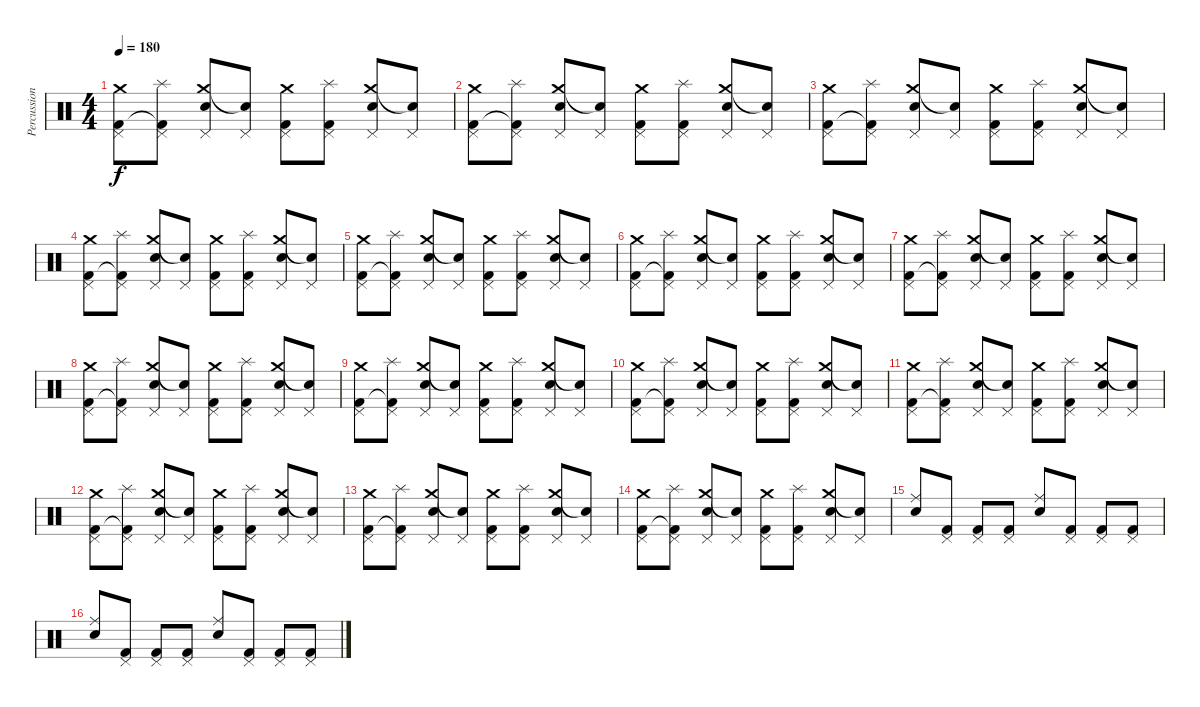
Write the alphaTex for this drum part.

\track ("Percussion" "Percussion") {instrument percussion}
\staff
\articulation defaults
\ts (4 4)
\tempo 180
\clef neutral
\ks c
("Pedal Hi-Hat (hit)" "Crash medium (hit)" "Kick (hit) 2").8{dy f} ("Pedal Hi-Hat (hit)" "Splash (hit)" "Kick (hit) 2"{t}).8 ("Pedal Hi-Hat (hit)" "Crash medium (hit)" "Snare (hit) 2").8 ("Pedal Hi-Hat (hit)" "Snare (hit) 2"{t}).8 ("Pedal Hi-Hat (hit)" "Crash medium (hit)" "Kick (hit) 2").8 ("Pedal Hi-Hat (hit)" "Splash (hit)" "Kick (hit) 2").8 ("Pedal Hi-Hat (hit)" "Crash medium (hit)" "Snare (hit) 2").8 ("Pedal Hi-Hat (hit)" "Snare (hit) 2"{t}).8 |
("Pedal Hi-Hat (hit)" "Crash medium (hit)" "Kick (hit) 2").8 ("Pedal Hi-Hat (hit)" "Splash (hit)" "Kick (hit) 2"{t}).8 ("Pedal Hi-Hat (hit)" "Crash medium (hit)" "Snare (hit) 2").8 ("Pedal Hi-Hat (hit)" "Snare (hit) 2"{t}).8 ("Pedal Hi-Hat (hit)" "Crash medium (hit)" "Kick (hit) 2").8 ("Pedal Hi-Hat (hit)" "Splash (hit)" "Kick (hit) 2").8 ("Pedal Hi-Hat (hit)" "Crash medium (hit)" "Snare (hit) 2").8 ("Pedal Hi-Hat (hit)" "Snare (hit) 2"{t}).8 |
("Pedal Hi-Hat (hit)" "Crash medium (hit)" "Kick (hit) 2").8 ("Pedal Hi-Hat (hit)" "Splash (hit)" "Kick (hit) 2"{t}).8 ("Pedal Hi-Hat (hit)" "Crash medium (hit)" "Snare (hit) 2").8 ("Pedal Hi-Hat (hit)" "Snare (hit) 2"{t}).8 ("Pedal Hi-Hat (hit)" "Crash medium (hit)" "Kick (hit) 2").8 ("Pedal Hi-Hat (hit)" "Splash (hit)" "Kick (hit) 2").8 ("Pedal Hi-Hat (hit)" "Crash medium (hit)" "Snare (hit) 2").8 ("Pedal Hi-Hat (hit)" "Snare (hit) 2"{t}).8 |
("Pedal Hi-Hat (hit)" "Crash medium (hit)" "Kick (hit) 2").8 ("Pedal Hi-Hat (hit)" "Splash (hit)" "Kick (hit) 2"{t}).8 ("Pedal Hi-Hat (hit)" "Crash medium (hit)" "Snare (hit) 2").8 ("Pedal Hi-Hat (hit)" "Snare (hit) 2"{t}).8 ("Pedal Hi-Hat (hit)" "Crash medium (hit)" "Kick (hit) 2").8 ("Pedal Hi-Hat (hit)" "Splash (hit)" "Kick (hit) 2").8 ("Pedal Hi-Hat (hit)" "Crash medium (hit)" "Snare (hit) 2").8 ("Pedal Hi-Hat (hit)" "Snare (hit) 2"{t}).8 |
("Pedal Hi-Hat (hit)" "Crash medium (hit)" "Kick (hit) 2").8 ("Pedal Hi-Hat (hit)" "Splash (hit)" "Kick (hit) 2"{t}).8 ("Pedal Hi-Hat (hit)" "Crash medium (hit)" "Snare (hit) 2").8 ("Pedal Hi-Hat (hit)" "Snare (hit) 2"{t}).8 ("Pedal Hi-Hat (hit)" "Crash medium (hit)" "Kick (hit) 2").8 ("Pedal Hi-Hat (hit)" "Splash (hit)" "Kick (hit) 2").8 ("Pedal Hi-Hat (hit)" "Crash medium (hit)" "Snare (hit) 2").8 ("Pedal Hi-Hat (hit)" "Snare (hit) 2"{t}).8 |
("Pedal Hi-Hat (hit)" "Crash medium (hit)" "Kick (hit) 2").8 ("Pedal Hi-Hat (hit)" "Splash (hit)" "Kick (hit) 2"{t}).8 ("Pedal Hi-Hat (hit)" "Crash medium (hit)" "Snare (hit) 2").8 ("Pedal Hi-Hat (hit)" "Snare (hit) 2"{t}).8 ("Pedal Hi-Hat (hit)" "Crash medium (hit)" "Kick (hit) 2").8 ("Pedal Hi-Hat (hit)" "Splash (hit)" "Kick (hit) 2").8 ("Pedal Hi-Hat (hit)" "Crash medium (hit)" "Snare (hit) 2").8 ("Pedal Hi-Hat (hit)" "Snare (hit) 2"{t}).8 |
("Pedal Hi-Hat (hit)" "Crash medium (hit)" "Kick (hit) 2").8 ("Pedal Hi-Hat (hit)" "Splash (hit)" "Kick (hit) 2"{t}).8 ("Pedal Hi-Hat (hit)" "Crash medium (hit)" "Snare (hit) 2").8 ("Pedal Hi-Hat (hit)" "Snare (hit) 2"{t}).8 ("Pedal Hi-Hat (hit)" "Crash medium (hit)" "Kick (hit) 2").8 ("Pedal Hi-Hat (hit)" "Splash (hit)" "Kick (hit) 2").8 ("Pedal Hi-Hat (hit)" "Crash medium (hit)" "Snare (hit) 2").8 ("Pedal Hi-Hat (hit)" "Snare (hit) 2"{t}).8 |
("Pedal Hi-Hat (hit)" "Crash medium (hit)" "Kick (hit) 2").8 ("Pedal Hi-Hat (hit)" "Splash (hit)" "Kick (hit) 2"{t}).8 ("Pedal Hi-Hat (hit)" "Crash medium (hit)" "Snare (hit) 2").8 ("Pedal Hi-Hat (hit)" "Snare (hit) 2"{t}).8 ("Pedal Hi-Hat (hit)" "Crash medium (hit)" "Kick (hit) 2").8 ("Pedal Hi-Hat (hit)" "Splash (hit)" "Kick (hit) 2").8 ("Pedal Hi-Hat (hit)" "Crash medium (hit)" "Snare (hit) 2").8 ("Pedal Hi-Hat (hit)" "Snare (hit) 2"{t}).8 |
("Pedal Hi-Hat (hit)" "Crash medium (hit)" "Kick (hit) 2").8 ("Pedal Hi-Hat (hit)" "Splash (hit)" "Kick (hit) 2"{t}).8 ("Pedal Hi-Hat (hit)" "Crash medium (hit)" "Snare (hit) 2").8 ("Pedal Hi-Hat (hit)" "Snare (hit) 2"{t}).8 ("Pedal Hi-Hat (hit)" "Crash medium (hit)" "Kick (hit) 2").8 ("Pedal Hi-Hat (hit)" "Splash (hit)" "Kick (hit) 2").8 ("Pedal Hi-Hat (hit)" "Crash medium (hit)" "Snare (hit) 2").8 ("Pedal Hi-Hat (hit)" "Snare (hit) 2"{t}).8 |
("Pedal Hi-Hat (hit)" "Crash medium (hit)" "Kick (hit) 2").8 ("Pedal Hi-Hat (hit)" "Splash (hit)" "Kick (hit) 2"{t}).8 ("Pedal Hi-Hat (hit)" "Crash medium (hit)" "Snare (hit) 2").8 ("Pedal Hi-Hat (hit)" "Snare (hit) 2"{t}).8 ("Pedal Hi-Hat (hit)" "Crash medium (hit)" "Kick (hit) 2").8 ("Pedal Hi-Hat (hit)" "Splash (hit)" "Kick (hit) 2").8 ("Pedal Hi-Hat (hit)" "Crash medium (hit)" "Snare (hit) 2").8 ("Pedal Hi-Hat (hit)" "Snare (hit) 2"{t}).8 |
("Pedal Hi-Hat (hit)" "Crash medium (hit)" "Kick (hit) 2").8 ("Pedal Hi-Hat (hit)" "Splash (hit)" "Kick (hit) 2"{t}).8 ("Pedal Hi-Hat (hit)" "Crash medium (hit)" "Snare (hit) 2").8 ("Pedal Hi-Hat (hit)" "Snare (hit) 2"{t}).8 ("Pedal Hi-Hat (hit)" "Crash medium (hit)" "Kick (hit) 2").8 ("Pedal Hi-Hat (hit)" "Splash (hit)" "Kick (hit) 2").8 ("Pedal Hi-Hat (hit)" "Crash medium (hit)" "Snare (hit) 2").8 ("Pedal Hi-Hat (hit)" "Snare (hit) 2"{t}).8 |
("Pedal Hi-Hat (hit)" "Crash medium (hit)" "Kick (hit) 2").8 ("Pedal Hi-Hat (hit)" "Splash (hit)" "Kick (hit) 2"{t}).8 ("Pedal Hi-Hat (hit)" "Crash medium (hit)" "Snare (hit) 2").8 ("Pedal Hi-Hat (hit)" "Snare (hit) 2"{t}).8 ("Pedal Hi-Hat (hit)" "Crash medium (hit)" "Kick (hit) 2").8 ("Pedal Hi-Hat (hit)" "Splash (hit)" "Kick (hit) 2").8 ("Pedal Hi-Hat (hit)" "Crash medium (hit)" "Snare (hit) 2").8 ("Pedal Hi-Hat (hit)" "Snare (hit) 2"{t}).8 |
("Pedal Hi-Hat (hit)" "Crash medium (hit)" "Kick (hit) 2").8 ("Pedal Hi-Hat (hit)" "Splash (hit)" "Kick (hit) 2"{t}).8 ("Pedal Hi-Hat (hit)" "Crash medium (hit)" "Snare (hit) 2").8 ("Pedal Hi-Hat (hit)" "Snare (hit) 2"{t}).8 ("Pedal Hi-Hat (hit)" "Crash medium (hit)" "Kick (hit) 2").8 ("Pedal Hi-Hat (hit)" "Splash (hit)" "Kick (hit) 2").8 ("Pedal Hi-Hat (hit)" "Crash medium (hit)" "Snare (hit) 2").8 ("Pedal Hi-Hat (hit)" "Snare (hit) 2"{t}).8 |
("Pedal Hi-Hat (hit)" "Crash medium (hit)" "Kick (hit) 2").8 ("Pedal Hi-Hat (hit)" "Splash (hit)" "Kick (hit) 2"{t}).8 ("Pedal Hi-Hat (hit)" "Crash medium (hit)" "Snare (hit) 2").8 ("Pedal Hi-Hat (hit)" "Snare (hit) 2"{t}).8 ("Pedal Hi-Hat (hit)" "Crash medium (hit)" "Kick (hit) 2").8 ("Pedal Hi-Hat (hit)" "Splash (hit)" "Kick (hit) 2").8 ("Pedal Hi-Hat (hit)" "Crash medium (hit)" "Snare (hit) 2").8 ("Pedal Hi-Hat (hit)" "Snare (hit) 2"{t}).8 |
("Ride (middle)" "Snare (hit) 2").8 ("Pedal Hi-Hat (hit)" "Kick (hit) 2").8 ("Pedal Hi-Hat (hit)" "Kick (hit) 2").8 ("Pedal Hi-Hat (hit)" "Kick (hit) 2").8 ("Ride (middle)" "Snare (hit) 2").8 ("Pedal Hi-Hat (hit)" "Kick (hit) 2").8 ("Pedal Hi-Hat (hit)" "Kick (hit) 2").8 ("Pedal Hi-Hat (hit)" "Kick (hit) 2").8 |
("Ride (middle)" "Snare (hit) 2").8 ("Pedal Hi-Hat (hit)" "Kick (hit) 2").8 ("Pedal Hi-Hat (hit)" "Kick (hit) 2").8 ("Pedal Hi-Hat (hit)" "Kick (hit) 2").8 ("Ride (middle)" "Snare (hit) 2").8 ("Pedal Hi-Hat (hit)" "Kick (hit) 2").8 ("Pedal Hi-Hat (hit)" "Kick (hit) 2").8 ("Pedal Hi-Hat (hit)" "Kick (hit) 2").8
